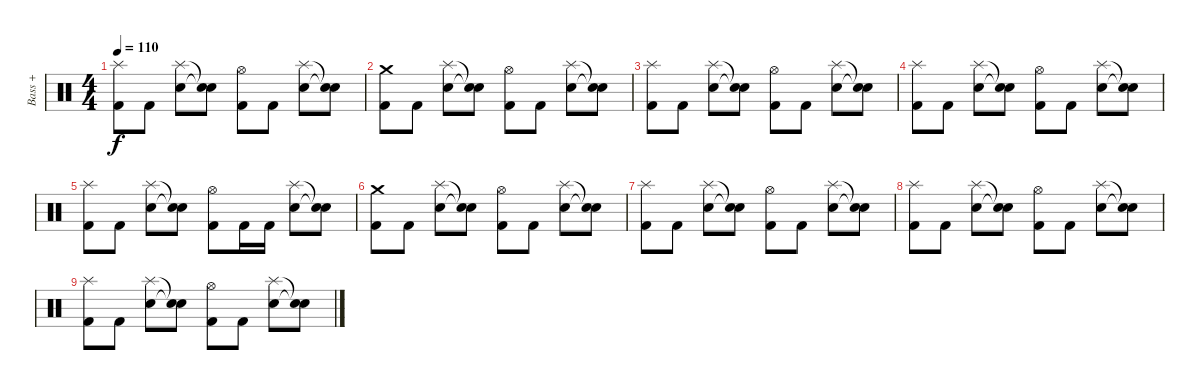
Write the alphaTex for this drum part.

\track ("  Bass +" "  Bass +") {instrument percussion}
\staff {score}
\articulation defaults
\ts (4 4)
\tempo 110
\clef neutral
\ks c
("Splash (hit)" "Kick (hit) 2").8{dy f} "Kick (hit) 2".8 ("Splash (hit)" "Snare (hit) 2").8 ("Snare (hit)"{t} "Snare (hit)"{t}).8 ("Hi-Hat (open)" "Kick (hit) 2").8 "Kick (hit) 2".8 ("Splash (hit)" "Snare (hit) 2").8 ("Snare (hit)"{t} "Snare (hit)"{t}).8 |
("Crash medium (hit)" "Kick (hit) 2").8 "Kick (hit) 2".8 ("Splash (hit)" "Snare (hit) 2").8 ("Snare (hit)"{t} "Snare (hit)"{t}).8 ("Hi-Hat (open)" "Kick (hit) 2").8 "Kick (hit) 2".8 ("Splash (hit)" "Snare (hit) 2").8 ("Snare (hit)"{t} "Snare (hit)"{t}).8 |
("Splash (hit)" "Kick (hit) 2").8 "Kick (hit) 2".8 ("Splash (hit)" "Snare (hit) 2").8 ("Snare (hit)"{t} "Snare (hit)"{t}).8 ("Hi-Hat (open)" "Kick (hit) 2").8 "Kick (hit) 2".8 ("Splash (hit)" "Snare (hit) 2").8 ("Snare (hit)"{t} "Snare (hit)"{t}).8 |
("Splash (hit)" "Kick (hit) 2").8 "Kick (hit) 2".8 ("Splash (hit)" "Snare (hit) 2").8 ("Snare (hit)"{t} "Snare (hit)"{t}).8 ("Hi-Hat (open)" "Kick (hit) 2").8 "Kick (hit) 2".8 ("Splash (hit)" "Snare (hit) 2").8 ("Snare (hit)"{t} "Snare (hit)"{t}).8 |
("Splash (hit)" "Kick (hit) 2").8 "Kick (hit) 2".8 ("Splash (hit)" "Snare (hit) 2").8 ("Snare (hit)"{t} "Snare (hit)"{t}).8 ("Hi-Hat (open)" "Kick (hit) 2").8 "Kick (hit) 2".16 "Kick (hit) 2".16 ("Splash (hit)" "Snare (hit) 2").8 ("Snare (hit)"{t} "Snare (hit)"{t}).8 |
("Crash medium (hit)" "Kick (hit) 2").8 "Kick (hit) 2".8 ("Splash (hit)" "Snare (hit) 2").8 ("Snare (hit)"{t} "Snare (hit)"{t}).8 ("Hi-Hat (open)" "Kick (hit) 2").8 "Kick (hit) 2".8 ("Splash (hit)" "Snare (hit) 2").8 ("Snare (hit)"{t} "Snare (hit)"{t}).8 |
("Splash (hit)" "Kick (hit) 2").8 "Kick (hit) 2".8 ("Splash (hit)" "Snare (hit) 2").8 ("Snare (hit)"{t} "Snare (hit)"{t}).8 ("Hi-Hat (open)" "Kick (hit) 2").8 "Kick (hit) 2".8 ("Splash (hit)" "Snare (hit) 2").8 ("Snare (hit)"{t} "Snare (hit)"{t}).8 |
("Splash (hit)" "Kick (hit) 2").8 "Kick (hit) 2".8 ("Splash (hit)" "Snare (hit) 2").8 ("Snare (hit)"{t} "Snare (hit)"{t}).8 ("Hi-Hat (open)" "Kick (hit) 2").8 "Kick (hit) 2".8 ("Splash (hit)" "Snare (hit) 2").8 ("Snare (hit)"{t} "Snare (hit)"{t}).8 |
("Splash (hit)" "Kick (hit) 2").8 "Kick (hit) 2".8 ("Splash (hit)" "Snare (hit) 2").8 ("Snare (hit)"{t} "Snare (hit)"{t}).8 ("Hi-Hat (open)" "Kick (hit) 2").8 "Kick (hit) 2".8 ("Splash (hit)" "Snare (hit) 2").8 ("Snare (hit)"{t} "Snare (hit)"{t}).8
